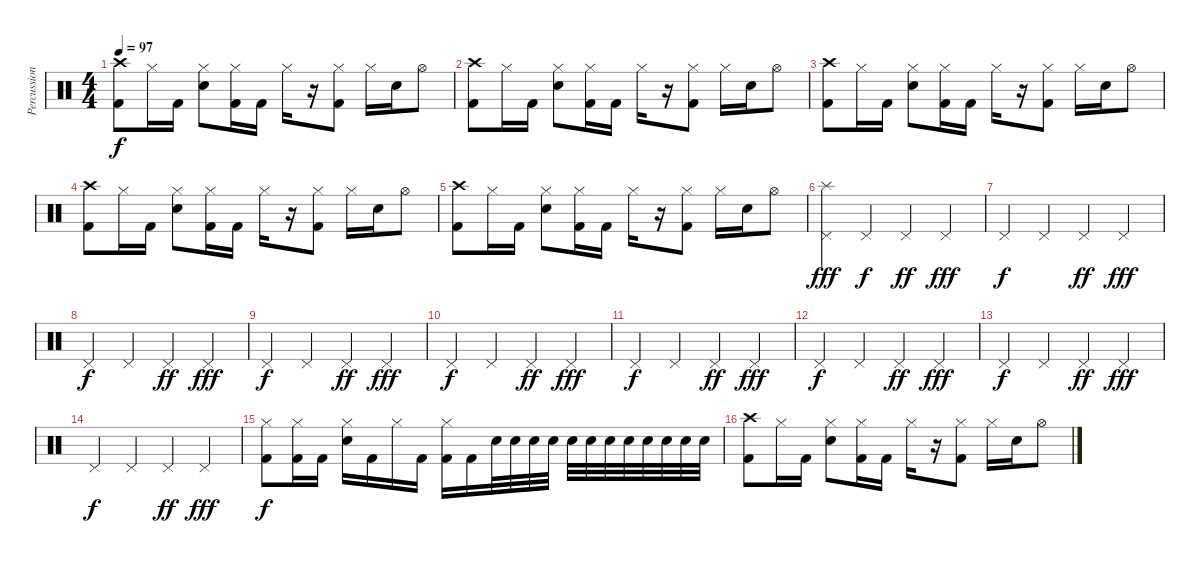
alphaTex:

\track ("Percussion" "Percussion") {instrument percussion}
\staff {score}
\articulation defaults
\ts (4 4)
\tempo 97
\clef neutral
\ks c
("Crash high (hit)" "Kick (hit) 2").8{dy f} "Hi-Hat (closed)".16 "Kick (hit) 2".16 ("Hi-Hat (closed)" "Snare (hit) 2").8 ("Hi-Hat (closed)" "Kick (hit) 2").16 "Kick (hit) 2".16 "Hi-Hat (closed)".16 r.16 ("Hi-Hat (closed)" "Kick (hit) 2").8 "Hi-Hat (closed)".16 "Snare (hit) 2".16 "Hi-Hat (open)".8 |
("Crash high (hit)" "Kick (hit) 2").8 "Hi-Hat (closed)".16 "Kick (hit) 2".16 ("Hi-Hat (closed)" "Snare (hit) 2").8 ("Hi-Hat (closed)" "Kick (hit) 2").16 "Kick (hit) 2".16 "Hi-Hat (closed)".16 r.16 ("Hi-Hat (closed)" "Kick (hit) 2").8 "Hi-Hat (closed)".16 "Snare (hit) 2".16 "Hi-Hat (open)".8 |
("Crash high (hit)" "Kick (hit) 2").8 "Hi-Hat (closed)".16 "Kick (hit) 2".16 ("Hi-Hat (closed)" "Snare (hit) 2").8 ("Hi-Hat (closed)" "Kick (hit) 2").16 "Kick (hit) 2".16 "Hi-Hat (closed)".16 r.16 ("Hi-Hat (closed)" "Kick (hit) 2").8 "Hi-Hat (closed)".16 "Snare (hit) 2".16 "Hi-Hat (open)".8 |
("Crash high (hit)" "Kick (hit) 2").8 "Hi-Hat (closed)".16 "Kick (hit) 2".16 ("Hi-Hat (closed)" "Snare (hit) 2").8 ("Hi-Hat (closed)" "Kick (hit) 2").16 "Kick (hit) 2".16 "Hi-Hat (closed)".16 r.16 ("Hi-Hat (closed)" "Kick (hit) 2").8 "Hi-Hat (closed)".16 "Snare (hit) 2".16 "Hi-Hat (open)".8 |
("Crash high (hit)" "Kick (hit) 2").8 "Hi-Hat (closed)".16 "Kick (hit) 2".16 ("Hi-Hat (closed)" "Snare (hit) 2").8 ("Hi-Hat (closed)" "Kick (hit) 2").16 "Kick (hit) 2".16 "Hi-Hat (closed)".16 r.16 ("Hi-Hat (closed)" "Kick (hit) 2").8 "Hi-Hat (closed)".16 "Snare (hit) 2".16 "Hi-Hat (open)".8 |
("Pedal Hi-Hat (hit)" "Splash (hit)").4{dy fff} "Pedal Hi-Hat (hit)".4{dy f} "Pedal Hi-Hat (hit)".4{dy ff} "Pedal Hi-Hat (hit)".4{dy fff} |
"Pedal Hi-Hat (hit)".4{dy f} "Pedal Hi-Hat (hit)".4 "Pedal Hi-Hat (hit)".4{dy ff} "Pedal Hi-Hat (hit)".4{dy fff} |
"Pedal Hi-Hat (hit)".4{dy f} "Pedal Hi-Hat (hit)".4 "Pedal Hi-Hat (hit)".4{dy ff} "Pedal Hi-Hat (hit)".4{dy fff} |
"Pedal Hi-Hat (hit)".4{dy f} "Pedal Hi-Hat (hit)".4 "Pedal Hi-Hat (hit)".4{dy ff} "Pedal Hi-Hat (hit)".4{dy fff} |
"Pedal Hi-Hat (hit)".4{dy f} "Pedal Hi-Hat (hit)".4 "Pedal Hi-Hat (hit)".4{dy ff} "Pedal Hi-Hat (hit)".4{dy fff} |
"Pedal Hi-Hat (hit)".4{dy f} "Pedal Hi-Hat (hit)".4 "Pedal Hi-Hat (hit)".4{dy ff} "Pedal Hi-Hat (hit)".4{dy fff} |
"Pedal Hi-Hat (hit)".4{dy f} "Pedal Hi-Hat (hit)".4 "Pedal Hi-Hat (hit)".4{dy ff} "Pedal Hi-Hat (hit)".4{dy fff} |
"Pedal Hi-Hat (hit)".4{dy f} "Pedal Hi-Hat (hit)".4 "Pedal Hi-Hat (hit)".4{dy ff} "Pedal Hi-Hat (hit)".4{dy fff} |
"Pedal Hi-Hat (hit)".4{dy f} "Pedal Hi-Hat (hit)".4 "Pedal Hi-Hat (hit)".4{dy ff} "Pedal Hi-Hat (hit)".4{dy fff} |
("Hi-Hat (closed)" "Kick (hit) 2").8{dy f} ("Hi-Hat (closed)" "Kick (hit) 2").16 "Kick (hit) 2".16 ("Hi-Hat (closed)" "Snare (hit) 2").16 "Kick (hit) 2".16 "Hi-Hat (closed)".16 "Kick (hit) 2".16 ("Hi-Hat (closed)" "Kick (hit) 2").16 "Kick (hit) 2".16 "Snare (hit) 2".32 "Snare (hit) 2".32 "Snare (hit) 2".32 "Snare (hit) 2".32 "Snare (hit) 2".32 "Snare (hit) 2".32 "Snare (hit) 2".32 "Snare (hit) 2".32 "Snare (hit) 2".32 "Snare (hit) 2".32 "Snare (hit) 2".32 "Snare (hit) 2".32 |
("Crash high (hit)" "Kick (hit) 2").8 "Hi-Hat (closed)".16 "Kick (hit) 2".16 ("Hi-Hat (closed)" "Snare (hit) 2").8 ("Hi-Hat (closed)" "Kick (hit) 2").16 "Kick (hit) 2".16 "Hi-Hat (closed)".16 r.16 ("Hi-Hat (closed)" "Kick (hit) 2").8 "Hi-Hat (closed)".16 "Snare (hit) 2".16 "Hi-Hat (open)".8
